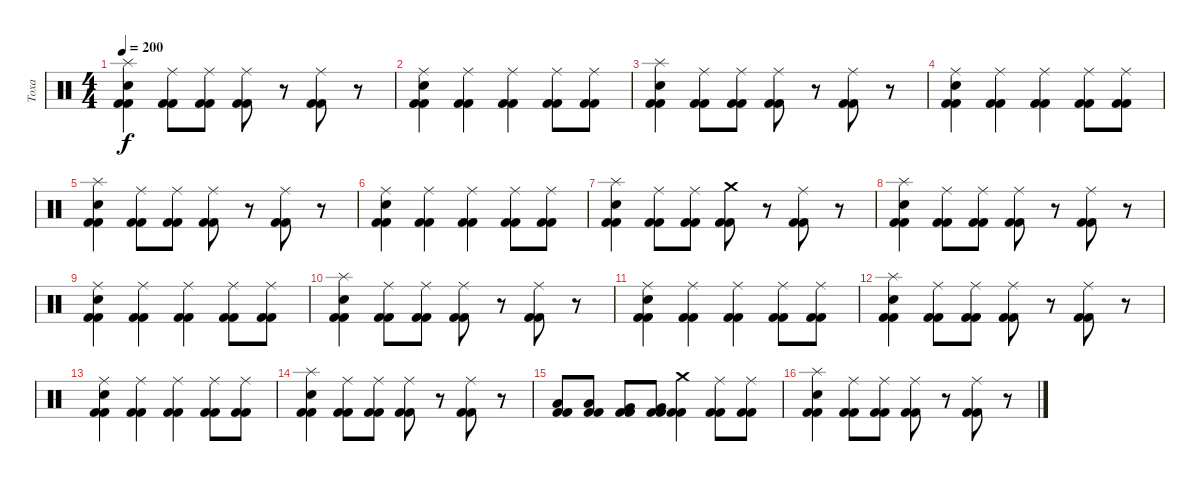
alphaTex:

\track ("Toxa" "Toxa") {instrument percussion}
\staff {score}
\articulation defaults
\ts (4 4)
\tempo 200
\clef neutral
\ks c
("Electric Snare (hit)" "Kick (hit) 2" "Kick (hit) 2" "Splash (hit)").4{dy f} ("Ride (middle)" "Kick (hit) 2" "Kick (hit) 2").8 ("Ride (middle)" "Kick (hit) 2" "Kick (hit) 2").8 ("Kick (hit) 2" "Kick (hit) 2" "Ride (middle)").8 r.8 ("Kick (hit) 2" "Kick (hit) 2" "Ride (middle)").8 r.8 |
("Electric Snare (hit)" "Kick (hit) 2" "Kick (hit) 2" "Ride (middle)").4 ("Kick (hit) 2" "Kick (hit) 2" "Ride (middle)").4 ("Kick (hit) 2" "Kick (hit) 2" "Ride (middle)").4 ("Kick (hit) 2" "Kick (hit) 2" "Ride (middle)").8 ("Kick (hit) 2" "Kick (hit) 2" "Ride (middle)").8 |
("Electric Snare (hit)" "Kick (hit) 2" "Kick (hit) 2" "Splash (hit)").4 ("Ride (middle)" "Kick (hit) 2" "Kick (hit) 2").8 ("Ride (middle)" "Kick (hit) 2" "Kick (hit) 2").8 ("Kick (hit) 2" "Kick (hit) 2" "Ride (middle)").8 r.8 ("Kick (hit) 2" "Kick (hit) 2" "Ride (middle)").8 r.8 |
("Electric Snare (hit)" "Kick (hit) 2" "Kick (hit) 2" "Ride (middle)").4 ("Kick (hit) 2" "Kick (hit) 2" "Ride (middle)").4 ("Kick (hit) 2" "Kick (hit) 2" "Ride (middle)").4 ("Kick (hit) 2" "Kick (hit) 2" "Ride (middle)").8 ("Kick (hit) 2" "Kick (hit) 2" "Ride (middle)").8 |
("Electric Snare (hit)" "Kick (hit) 2" "Kick (hit) 2" "Splash (hit)").4 ("Ride (middle)" "Kick (hit) 2" "Kick (hit) 2").8 ("Ride (middle)" "Kick (hit) 2" "Kick (hit) 2").8 ("Kick (hit) 2" "Kick (hit) 2" "Ride (middle)").8 r.8 ("Kick (hit) 2" "Kick (hit) 2" "Ride (middle)").8 r.8 |
("Electric Snare (hit)" "Kick (hit) 2" "Kick (hit) 2" "Ride (middle)").4 ("Kick (hit) 2" "Kick (hit) 2" "Ride (middle)").4 ("Kick (hit) 2" "Kick (hit) 2" "Ride (middle)").4 ("Kick (hit) 2" "Kick (hit) 2" "Ride (middle)").8 ("Kick (hit) 2" "Kick (hit) 2" "Ride (middle)").8 |
("Electric Snare (hit)" "Kick (hit) 2" "Kick (hit) 2" "Splash (hit)").4 ("Ride (middle)" "Kick (hit) 2" "Kick (hit) 2").8 ("Ride (middle)" "Kick (hit) 2" "Kick (hit) 2").8 ("Kick (hit) 2" "Kick (hit) 2" "Crash medium (hit)").8 r.8 ("Kick (hit) 2" "Kick (hit) 2" "Ride (middle)").8 r.8 |
("Electric Snare (hit)" "Kick (hit) 2" "Kick (hit) 2" "Splash (hit)").4 ("Ride (middle)" "Kick (hit) 2" "Kick (hit) 2").8 ("Ride (middle)" "Kick (hit) 2" "Kick (hit) 2").8 ("Kick (hit) 2" "Kick (hit) 2" "Ride (middle)").8 r.8 ("Kick (hit) 2" "Kick (hit) 2" "Ride (middle)").8 r.8 |
("Electric Snare (hit)" "Kick (hit) 2" "Kick (hit) 2" "Ride (middle)").4 ("Kick (hit) 2" "Kick (hit) 2" "Ride (middle)").4 ("Kick (hit) 2" "Kick (hit) 2" "Ride (middle)").4 ("Kick (hit) 2" "Kick (hit) 2" "Ride (middle)").8 ("Kick (hit) 2" "Kick (hit) 2" "Ride (middle)").8 |
("Electric Snare (hit)" "Kick (hit) 2" "Kick (hit) 2" "Splash (hit)").4 ("Ride (middle)" "Kick (hit) 2" "Kick (hit) 2").8 ("Ride (middle)" "Kick (hit) 2" "Kick (hit) 2").8 ("Kick (hit) 2" "Kick (hit) 2" "Ride (middle)").8 r.8 ("Kick (hit) 2" "Kick (hit) 2" "Ride (middle)").8 r.8 |
("Electric Snare (hit)" "Kick (hit) 2" "Kick (hit) 2" "Ride (middle)").4 ("Kick (hit) 2" "Kick (hit) 2" "Ride (middle)").4 ("Kick (hit) 2" "Kick (hit) 2" "Ride (middle)").4 ("Kick (hit) 2" "Kick (hit) 2" "Ride (middle)").8 ("Kick (hit) 2" "Kick (hit) 2" "Ride (middle)").8 |
("Electric Snare (hit)" "Kick (hit) 2" "Kick (hit) 2" "Splash (hit)").4 ("Ride (middle)" "Kick (hit) 2" "Kick (hit) 2").8 ("Ride (middle)" "Kick (hit) 2" "Kick (hit) 2").8 ("Kick (hit) 2" "Kick (hit) 2" "Ride (middle)").8 r.8 ("Kick (hit) 2" "Kick (hit) 2" "Ride (middle)").8 r.8 |
("Electric Snare (hit)" "Kick (hit) 2" "Kick (hit) 2" "Ride (middle)").4 ("Kick (hit) 2" "Kick (hit) 2" "Ride (middle)").4 ("Kick (hit) 2" "Kick (hit) 2" "Ride (middle)").4 ("Kick (hit) 2" "Kick (hit) 2" "Ride (middle)").8 ("Kick (hit) 2" "Kick (hit) 2" "Ride (middle)").8 |
("Electric Snare (hit)" "Kick (hit) 2" "Kick (hit) 2" "Splash (hit)").4 ("Ride (middle)" "Kick (hit) 2" "Kick (hit) 2").8 ("Ride (middle)" "Kick (hit) 2" "Kick (hit) 2").8 ("Kick (hit) 2" "Kick (hit) 2" "Ride (middle)").8 r.8 ("Kick (hit) 2" "Kick (hit) 2" "Ride (middle)").8 r.8 |
("Kick (hit) 2" "Kick (hit) 2" "Low Tom (hit)").8 ("Kick (hit) 2" "Kick (hit) 2" "Low Tom (hit)").8 ("Kick (hit) 2" "Kick (hit) 2" "Very Low Tom (hit)").8 ("Kick (hit) 2" "Kick (hit) 2" "Very Low Tom (hit)").8 ("Kick (hit) 2" "Kick (hit) 2" "Crash medium (hit)").4 ("Kick (hit) 2" "Kick (hit) 2" "Ride (middle)").8 ("Kick (hit) 2" "Kick (hit) 2" "Ride (middle)").8 |
("Electric Snare (hit)" "Kick (hit) 2" "Kick (hit) 2" "Splash (hit)").4 ("Ride (middle)" "Kick (hit) 2" "Kick (hit) 2").8 ("Ride (middle)" "Kick (hit) 2" "Kick (hit) 2").8 ("Kick (hit) 2" "Kick (hit) 2" "Ride (middle)").8 r.8 ("Kick (hit) 2" "Kick (hit) 2" "Ride (middle)").8 r.8
